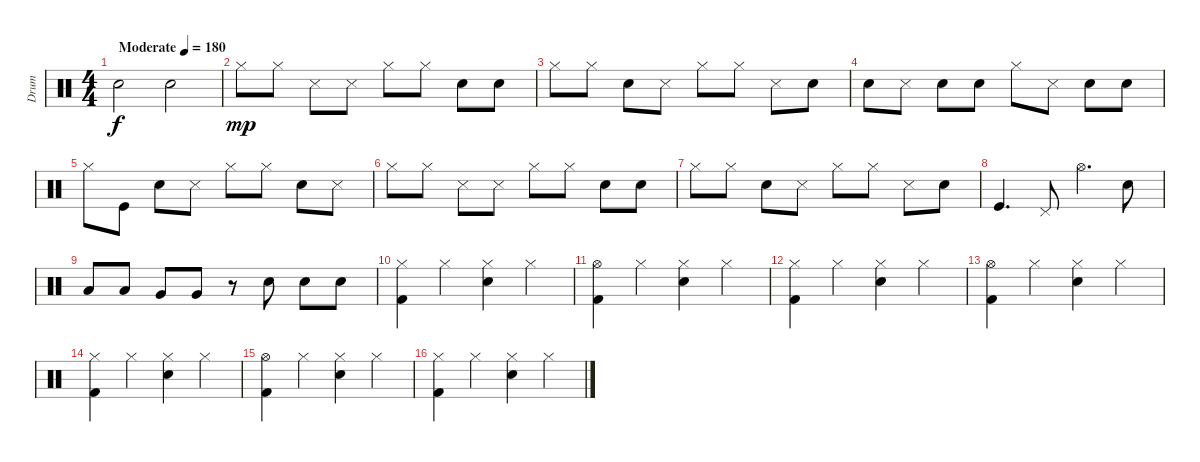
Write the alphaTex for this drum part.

\track ("Drum" "Drum") {instrument percussion}
\staff {score}
\articulation defaults
\ts (4 4)
\tempo (180 "Moderate")
\clef neutral
\ks c "Snare (hit) 2".2{dy f} "Snare (hit) 2".2
|
"Hi-Hat (closed)".8{dy mp} "Hi-Hat (closed)".8 "Snare (side stick) 3".8 "Snare (side stick) 3".8 "Hi-Hat (closed)".8 "Hi-Hat (closed)".8 "Hand Clap (hit)".8 "Hand Clap (hit)".8 |
"Hi-Hat (closed)".8 "Hi-Hat (closed)".8 "Hand Clap (hit)".8 "Snare (side stick) 3".8 "Hi-Hat (closed)".8 "Hi-Hat (closed)".8 "Snare (side stick) 3".8 "Hand Clap (hit)".8 |
"Hand Clap (hit)".8 "Snare (side stick) 3".8 "Hand Clap (hit)".8 "Hand Clap (hit)".8 "Hi-Hat (closed)".8 "Snare (side stick) 3".8 "Hand Clap (hit)".8 "Hand Clap (hit)".8 |
"Hi-Hat (closed)".8 "Kick (hit)".8 "Hand Clap (hit)".8 "Snare (side stick) 3".8 "Hi-Hat (closed)".8 "Hi-Hat (closed)".8 "Hand Clap (hit)".8 "Snare (side stick) 3".8 |
"Hi-Hat (closed)".8 "Hi-Hat (closed)".8 "Snare (side stick) 3".8 "Snare (side stick) 3".8 "Hi-Hat (closed)".8 "Hi-Hat (closed)".8 "Hand Clap (hit)".8 "Hand Clap (hit)".8 |
"Hi-Hat (closed)".8 "Hi-Hat (closed)".8 "Hand Clap (hit)".8 "Snare (side stick) 3".8 "Hi-Hat (closed)".8 "Hi-Hat (closed)".8 "Snare (side stick) 3".8 "Hand Clap (hit)".8 |
"Kick (hit)".4{d} "Pedal Hi-Hat (hit)".8 "Hi-Hat (open)".4{d} "Snare (hit) 2".8 |
"Low Tom (hit)".8 "Low Tom (hit)".8 "Very Low Tom (hit)".8 "Very Low Tom (hit)".8 r.8 "Snare (hit) 2".8 "Snare (hit) 2".8 "Snare (hit) 2".8 |
("Hi-Hat (closed)" "Kick (hit) 2").4 "Hi-Hat (closed)".4 ("Hi-Hat (closed)" "Snare (hit) 2").4 "Hi-Hat (closed)".4 |
("Hi-Hat (open)" "Kick (hit) 2").4 "Hi-Hat (closed)".4 ("Hi-Hat (closed)" "Snare (hit) 2").4 "Hi-Hat (closed)".4 |
("Hi-Hat (closed)" "Kick (hit) 2").4 "Hi-Hat (closed)".4 ("Hi-Hat (closed)" "Snare (hit) 2").4 "Hi-Hat (closed)".4 |
("Hi-Hat (open)" "Kick (hit) 2").4 "Hi-Hat (closed)".4 ("Hi-Hat (closed)" "Snare (hit) 2").4 "Hi-Hat (closed)".4 |
("Hi-Hat (closed)" "Kick (hit) 2").4 "Hi-Hat (closed)".4 ("Hi-Hat (closed)" "Snare (hit) 2").4 "Hi-Hat (closed)".4 |
("Hi-Hat (open)" "Kick (hit) 2").4 "Hi-Hat (closed)".4 ("Hi-Hat (closed)" "Snare (hit) 2").4 "Hi-Hat (closed)".4 |
("Hi-Hat (closed)" "Kick (hit) 2").4 "Hi-Hat (closed)".4 ("Hi-Hat (closed)" "Snare (hit) 2").4 "Hi-Hat (closed)".4
